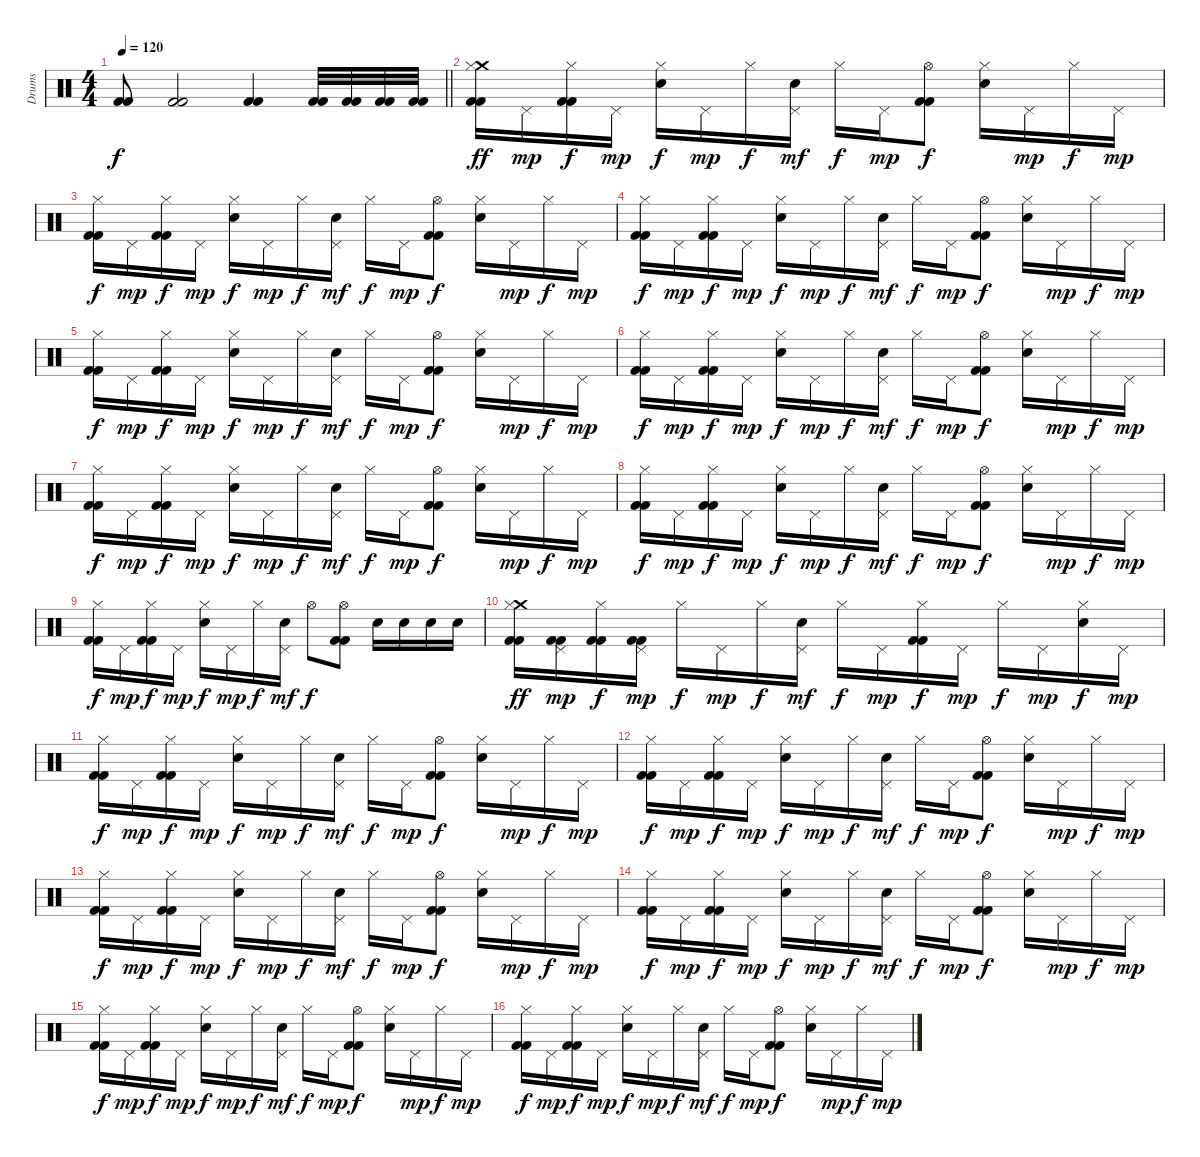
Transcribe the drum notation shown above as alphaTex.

\track ("Drums" "Drums") {instrument percussion}
\staff {score}
\articulation defaults
\ts (4 4)
\tempo 120
\clef neutral
\barLineRight lightlight
\ks c
("Kick (hit) 2" "Kick (hit) 2").8{dy f} ("Kick (hit) 2" "Kick (hit) 2").2 ("Kick (hit) 2" "Kick (hit) 2").4 ("Kick (hit) 2" "Kick (hit) 2").32 ("Kick (hit) 2" "Kick (hit) 2").32 ("Kick (hit) 2" "Kick (hit) 2").32 ("Kick (hit) 2" "Kick (hit) 2").32 |
("Crash medium (hit)" "Hi-Hat (closed)" "Kick (hit) 2" "Kick (hit) 2").16{dy ff} "Pedal Hi-Hat (hit)".16{dy mp} ("Hi-Hat (closed)" "Kick (hit) 2" "Kick (hit) 2").16{dy f} "Pedal Hi-Hat (hit)".16{dy mp} ("Hi-Hat (closed)" "Electric Snare (hit)").16{dy f} "Pedal Hi-Hat (hit)".16{dy mp} "Hi-Hat (closed)".16{dy f} ("Pedal Hi-Hat (hit)" "Electric Snare (hit)").16{dy mf} "Hi-Hat (closed)".16{dy f} "Pedal Hi-Hat (hit)".16{dy mp} ("Hi-Hat (open)" "Kick (hit) 2" "Kick (hit) 2").8{dy f} ("Hi-Hat (closed)" "Electric Snare (hit)").16 "Pedal Hi-Hat (hit)".16{dy mp} "Hi-Hat (closed)".16{dy f} "Pedal Hi-Hat (hit)".16{dy mp} |
("Hi-Hat (closed)" "Kick (hit) 2" "Kick (hit) 2").16{dy f} "Pedal Hi-Hat (hit)".16{dy mp} ("Hi-Hat (closed)" "Kick (hit) 2" "Kick (hit) 2").16{dy f} "Pedal Hi-Hat (hit)".16{dy mp} ("Hi-Hat (closed)" "Electric Snare (hit)").16{dy f} "Pedal Hi-Hat (hit)".16{dy mp} "Hi-Hat (closed)".16{dy f} ("Pedal Hi-Hat (hit)" "Electric Snare (hit)").16{dy mf} "Hi-Hat (closed)".16{dy f} "Pedal Hi-Hat (hit)".16{dy mp} ("Hi-Hat (open)" "Kick (hit) 2" "Kick (hit) 2").8{dy f} ("Hi-Hat (closed)" "Electric Snare (hit)").16 "Pedal Hi-Hat (hit)".16{dy mp} "Hi-Hat (closed)".16{dy f} "Pedal Hi-Hat (hit)".16{dy mp} |
("Hi-Hat (closed)" "Kick (hit) 2" "Kick (hit) 2").16{dy f} "Pedal Hi-Hat (hit)".16{dy mp} ("Hi-Hat (closed)" "Kick (hit) 2" "Kick (hit) 2").16{dy f} "Pedal Hi-Hat (hit)".16{dy mp} ("Hi-Hat (closed)" "Electric Snare (hit)").16{dy f} "Pedal Hi-Hat (hit)".16{dy mp} "Hi-Hat (closed)".16{dy f} ("Pedal Hi-Hat (hit)" "Electric Snare (hit)").16{dy mf} "Hi-Hat (closed)".16{dy f} "Pedal Hi-Hat (hit)".16{dy mp} ("Hi-Hat (open)" "Kick (hit) 2" "Kick (hit) 2").8{dy f} ("Hi-Hat (closed)" "Electric Snare (hit)").16 "Pedal Hi-Hat (hit)".16{dy mp} "Hi-Hat (closed)".16{dy f} "Pedal Hi-Hat (hit)".16{dy mp} |
("Hi-Hat (closed)" "Kick (hit) 2" "Kick (hit) 2").16{dy f} "Pedal Hi-Hat (hit)".16{dy mp} ("Hi-Hat (closed)" "Kick (hit) 2" "Kick (hit) 2").16{dy f} "Pedal Hi-Hat (hit)".16{dy mp} ("Hi-Hat (closed)" "Electric Snare (hit)").16{dy f} "Pedal Hi-Hat (hit)".16{dy mp} "Hi-Hat (closed)".16{dy f} ("Pedal Hi-Hat (hit)" "Electric Snare (hit)").16{dy mf} "Hi-Hat (closed)".16{dy f} "Pedal Hi-Hat (hit)".16{dy mp} ("Hi-Hat (open)" "Kick (hit) 2" "Kick (hit) 2").8{dy f} ("Hi-Hat (closed)" "Electric Snare (hit)").16 "Pedal Hi-Hat (hit)".16{dy mp} "Hi-Hat (closed)".16{dy f} "Pedal Hi-Hat (hit)".16{dy mp} |
("Hi-Hat (closed)" "Kick (hit) 2" "Kick (hit) 2").16{dy f} "Pedal Hi-Hat (hit)".16{dy mp} ("Hi-Hat (closed)" "Kick (hit) 2" "Kick (hit) 2").16{dy f} "Pedal Hi-Hat (hit)".16{dy mp} ("Hi-Hat (closed)" "Electric Snare (hit)").16{dy f} "Pedal Hi-Hat (hit)".16{dy mp} "Hi-Hat (closed)".16{dy f} ("Pedal Hi-Hat (hit)" "Electric Snare (hit)").16{dy mf} "Hi-Hat (closed)".16{dy f} "Pedal Hi-Hat (hit)".16{dy mp} ("Hi-Hat (open)" "Kick (hit) 2" "Kick (hit) 2").8{dy f} ("Hi-Hat (closed)" "Electric Snare (hit)").16 "Pedal Hi-Hat (hit)".16{dy mp} "Hi-Hat (closed)".16{dy f} "Pedal Hi-Hat (hit)".16{dy mp} |
("Hi-Hat (closed)" "Kick (hit) 2" "Kick (hit) 2").16{dy f} "Pedal Hi-Hat (hit)".16{dy mp} ("Hi-Hat (closed)" "Kick (hit) 2" "Kick (hit) 2").16{dy f} "Pedal Hi-Hat (hit)".16{dy mp} ("Hi-Hat (closed)" "Electric Snare (hit)").16{dy f} "Pedal Hi-Hat (hit)".16{dy mp} "Hi-Hat (closed)".16{dy f} ("Pedal Hi-Hat (hit)" "Electric Snare (hit)").16{dy mf} "Hi-Hat (closed)".16{dy f} "Pedal Hi-Hat (hit)".16{dy mp} ("Hi-Hat (open)" "Kick (hit) 2" "Kick (hit) 2").8{dy f} ("Hi-Hat (closed)" "Electric Snare (hit)").16 "Pedal Hi-Hat (hit)".16{dy mp} "Hi-Hat (closed)".16{dy f} "Pedal Hi-Hat (hit)".16{dy mp} |
("Hi-Hat (closed)" "Kick (hit) 2" "Kick (hit) 2").16{dy f} "Pedal Hi-Hat (hit)".16{dy mp} ("Hi-Hat (closed)" "Kick (hit) 2" "Kick (hit) 2").16{dy f} "Pedal Hi-Hat (hit)".16{dy mp} ("Hi-Hat (closed)" "Electric Snare (hit)").16{dy f} "Pedal Hi-Hat (hit)".16{dy mp} "Hi-Hat (closed)".16{dy f} ("Pedal Hi-Hat (hit)" "Electric Snare (hit)").16{dy mf} "Hi-Hat (closed)".16{dy f} "Pedal Hi-Hat (hit)".16{dy mp} ("Hi-Hat (open)" "Kick (hit) 2" "Kick (hit) 2").8{dy f} ("Hi-Hat (closed)" "Electric Snare (hit)").16 "Pedal Hi-Hat (hit)".16{dy mp} "Hi-Hat (closed)".16{dy f} "Pedal Hi-Hat (hit)".16{dy mp} |
("Hi-Hat (closed)" "Kick (hit) 2" "Kick (hit) 2").16{dy f} "Pedal Hi-Hat (hit)".16{dy mp} ("Hi-Hat (closed)" "Kick (hit) 2" "Kick (hit) 2").16{dy f} "Pedal Hi-Hat (hit)".16{dy mp} ("Hi-Hat (closed)" "Electric Snare (hit)").16{dy f} "Pedal Hi-Hat (hit)".16{dy mp} "Hi-Hat (closed)".16{dy f} ("Pedal Hi-Hat (hit)" "Electric Snare (hit)").16{dy mf} "Hi-Hat (open)".8{dy f} ("Hi-Hat (open)" "Kick (hit) 2" "Kick (hit) 2").8 "Electric Snare (hit)".16 "Electric Snare (hit)".16 "Electric Snare (hit)".16 "Electric Snare (hit)".16 |
("Crash medium (hit)" "Hi-Hat (closed)" "Kick (hit) 2" "Kick (hit) 2").16{dy ff} ("Pedal Hi-Hat (hit)" "Kick (hit) 2" "Kick (hit) 2").16{dy mp} ("Hi-Hat (closed)" "Kick (hit) 2" "Kick (hit) 2").16{dy f} ("Pedal Hi-Hat (hit)" "Kick (hit) 2" "Kick (hit) 2").16{dy mp} "Hi-Hat (closed)".16{dy f} "Pedal Hi-Hat (hit)".16{dy mp} "Hi-Hat (closed)".16{dy f} ("Pedal Hi-Hat (hit)" "Electric Snare (hit)").16{dy mf} "Hi-Hat (closed)".16{dy f} "Pedal Hi-Hat (hit)".16{dy mp} ("Hi-Hat (closed)" "Kick (hit) 2" "Kick (hit) 2").16{dy f} "Pedal Hi-Hat (hit)".16{dy mp} "Hi-Hat (closed)".16{dy f} "Pedal Hi-Hat (hit)".16{dy mp} ("Hi-Hat (closed)" "Electric Snare (hit)").16{dy f} "Pedal Hi-Hat (hit)".16{dy mp} |
("Hi-Hat (closed)" "Kick (hit) 2" "Kick (hit) 2").16{dy f} "Pedal Hi-Hat (hit)".16{dy mp} ("Hi-Hat (closed)" "Kick (hit) 2" "Kick (hit) 2").16{dy f} "Pedal Hi-Hat (hit)".16{dy mp} ("Hi-Hat (closed)" "Electric Snare (hit)").16{dy f} "Pedal Hi-Hat (hit)".16{dy mp} "Hi-Hat (closed)".16{dy f} ("Pedal Hi-Hat (hit)" "Electric Snare (hit)").16{dy mf} "Hi-Hat (closed)".16{dy f} "Pedal Hi-Hat (hit)".16{dy mp} ("Hi-Hat (open)" "Kick (hit) 2" "Kick (hit) 2").8{dy f} ("Hi-Hat (closed)" "Electric Snare (hit)").16 "Pedal Hi-Hat (hit)".16{dy mp} "Hi-Hat (closed)".16{dy f} "Pedal Hi-Hat (hit)".16{dy mp} |
("Hi-Hat (closed)" "Kick (hit) 2" "Kick (hit) 2").16{dy f} "Pedal Hi-Hat (hit)".16{dy mp} ("Hi-Hat (closed)" "Kick (hit) 2" "Kick (hit) 2").16{dy f} "Pedal Hi-Hat (hit)".16{dy mp} ("Hi-Hat (closed)" "Electric Snare (hit)").16{dy f} "Pedal Hi-Hat (hit)".16{dy mp} "Hi-Hat (closed)".16{dy f} ("Pedal Hi-Hat (hit)" "Electric Snare (hit)").16{dy mf} "Hi-Hat (closed)".16{dy f} "Pedal Hi-Hat (hit)".16{dy mp} ("Hi-Hat (open)" "Kick (hit) 2" "Kick (hit) 2").8{dy f} ("Hi-Hat (closed)" "Electric Snare (hit)").16 "Pedal Hi-Hat (hit)".16{dy mp} "Hi-Hat (closed)".16{dy f} "Pedal Hi-Hat (hit)".16{dy mp} |
("Hi-Hat (closed)" "Kick (hit) 2" "Kick (hit) 2").16{dy f} "Pedal Hi-Hat (hit)".16{dy mp} ("Hi-Hat (closed)" "Kick (hit) 2" "Kick (hit) 2").16{dy f} "Pedal Hi-Hat (hit)".16{dy mp} ("Hi-Hat (closed)" "Electric Snare (hit)").16{dy f} "Pedal Hi-Hat (hit)".16{dy mp} "Hi-Hat (closed)".16{dy f} ("Pedal Hi-Hat (hit)" "Electric Snare (hit)").16{dy mf} "Hi-Hat (closed)".16{dy f} "Pedal Hi-Hat (hit)".16{dy mp} ("Hi-Hat (open)" "Kick (hit) 2" "Kick (hit) 2").8{dy f} ("Hi-Hat (closed)" "Electric Snare (hit)").16 "Pedal Hi-Hat (hit)".16{dy mp} "Hi-Hat (closed)".16{dy f} "Pedal Hi-Hat (hit)".16{dy mp} |
("Hi-Hat (closed)" "Kick (hit) 2" "Kick (hit) 2").16{dy f} "Pedal Hi-Hat (hit)".16{dy mp} ("Hi-Hat (closed)" "Kick (hit) 2" "Kick (hit) 2").16{dy f} "Pedal Hi-Hat (hit)".16{dy mp} ("Hi-Hat (closed)" "Electric Snare (hit)").16{dy f} "Pedal Hi-Hat (hit)".16{dy mp} "Hi-Hat (closed)".16{dy f} ("Pedal Hi-Hat (hit)" "Electric Snare (hit)").16{dy mf} "Hi-Hat (closed)".16{dy f} "Pedal Hi-Hat (hit)".16{dy mp} ("Hi-Hat (open)" "Kick (hit) 2" "Kick (hit) 2").8{dy f} ("Hi-Hat (closed)" "Electric Snare (hit)").16 "Pedal Hi-Hat (hit)".16{dy mp} "Hi-Hat (closed)".16{dy f} "Pedal Hi-Hat (hit)".16{dy mp} |
("Hi-Hat (closed)" "Kick (hit) 2" "Kick (hit) 2").16{dy f} "Pedal Hi-Hat (hit)".16{dy mp} ("Hi-Hat (closed)" "Kick (hit) 2" "Kick (hit) 2").16{dy f} "Pedal Hi-Hat (hit)".16{dy mp} ("Hi-Hat (closed)" "Electric Snare (hit)").16{dy f} "Pedal Hi-Hat (hit)".16{dy mp} "Hi-Hat (closed)".16{dy f} ("Pedal Hi-Hat (hit)" "Electric Snare (hit)").16{dy mf} "Hi-Hat (closed)".16{dy f} "Pedal Hi-Hat (hit)".16{dy mp} ("Hi-Hat (open)" "Kick (hit) 2" "Kick (hit) 2").8{dy f} ("Hi-Hat (closed)" "Electric Snare (hit)").16 "Pedal Hi-Hat (hit)".16{dy mp} "Hi-Hat (closed)".16{dy f} "Pedal Hi-Hat (hit)".16{dy mp} |
("Hi-Hat (closed)" "Kick (hit) 2" "Kick (hit) 2").16{dy f} "Pedal Hi-Hat (hit)".16{dy mp} ("Hi-Hat (closed)" "Kick (hit) 2" "Kick (hit) 2").16{dy f} "Pedal Hi-Hat (hit)".16{dy mp} ("Hi-Hat (closed)" "Electric Snare (hit)").16{dy f} "Pedal Hi-Hat (hit)".16{dy mp} "Hi-Hat (closed)".16{dy f} ("Pedal Hi-Hat (hit)" "Electric Snare (hit)").16{dy mf} "Hi-Hat (closed)".16{dy f} "Pedal Hi-Hat (hit)".16{dy mp} ("Hi-Hat (open)" "Kick (hit) 2" "Kick (hit) 2").8{dy f} ("Hi-Hat (closed)" "Electric Snare (hit)").16 "Pedal Hi-Hat (hit)".16{dy mp} "Hi-Hat (closed)".16{dy f} "Pedal Hi-Hat (hit)".16{dy mp}
